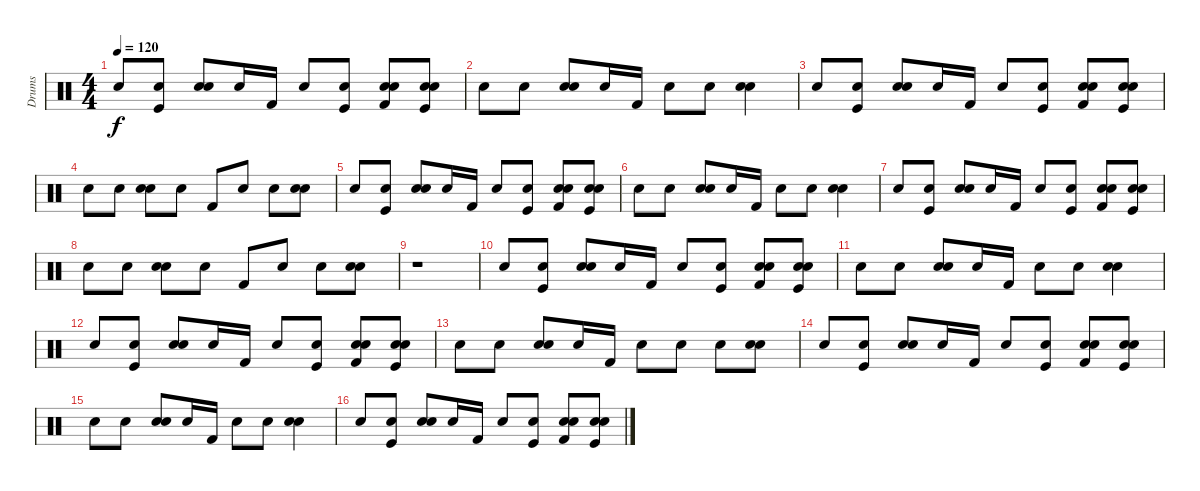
\track ("Drums" "Drums") {instrument percussion}
\staff {score}
\articulation defaults
\ts (4 4)
\tempo 120
\clef neutral
\ks c "Snare (hit) 2".8{dy f}
("Snare (hit) 2" "Kick (hit)").8 ("Electric Snare (hit)" "Snare (hit) 2").8 "Snare (hit) 2".16 "Kick (hit) 2".16 "Snare (hit) 2".8 ("Snare (hit) 2" "Kick (hit)").8 ("Electric Snare (hit)" "Snare (hit) 2" "Kick (hit) 2").8 ("Electric Snare (hit)" "Snare (hit) 2" "Kick (hit)").8 |
"Snare (hit) 2".8 "Snare (hit) 2".8 ("Electric Snare (hit)" "Snare (hit) 2").8 "Snare (hit) 2".16 "Kick (hit) 2".16 "Snare (hit) 2".8 "Snare (hit) 2".8 ("Electric Snare (hit)" "Snare (hit) 2").4 |
"Snare (hit) 2".8 ("Snare (hit) 2" "Kick (hit)").8 ("Electric Snare (hit)" "Snare (hit) 2").8 "Snare (hit) 2".16 "Kick (hit) 2".16 "Snare (hit) 2".8 ("Snare (hit) 2" "Kick (hit)").8 ("Electric Snare (hit)" "Snare (hit) 2" "Kick (hit) 2").8 ("Electric Snare (hit)" "Snare (hit) 2" "Kick (hit)").8 |
"Snare (hit) 2".8 "Snare (hit) 2".8 ("Electric Snare (hit)" "Snare (hit) 2").8 "Snare (hit) 2".8 "Kick (hit) 2".8 "Snare (hit) 2".8 "Snare (hit) 2".8 ("Electric Snare (hit)" "Snare (hit) 2").8 |
"Snare (hit) 2".8 ("Snare (hit) 2" "Kick (hit)").8 ("Electric Snare (hit)" "Snare (hit) 2").8 "Snare (hit) 2".16 "Kick (hit) 2".16 "Snare (hit) 2".8 ("Snare (hit) 2" "Kick (hit)").8 ("Electric Snare (hit)" "Snare (hit) 2" "Kick (hit) 2").8 ("Electric Snare (hit)" "Snare (hit) 2" "Kick (hit)").8 |
"Snare (hit) 2".8 "Snare (hit) 2".8 ("Electric Snare (hit)" "Snare (hit) 2").8 "Snare (hit) 2".16 "Kick (hit) 2".16 "Snare (hit) 2".8 "Snare (hit) 2".8 ("Electric Snare (hit)" "Snare (hit) 2").4 |
"Snare (hit) 2".8 ("Snare (hit) 2" "Kick (hit)").8 ("Electric Snare (hit)" "Snare (hit) 2").8 "Snare (hit) 2".16 "Kick (hit) 2".16 "Snare (hit) 2".8 ("Snare (hit) 2" "Kick (hit)").8 ("Electric Snare (hit)" "Snare (hit) 2" "Kick (hit) 2").8 ("Electric Snare (hit)" "Snare (hit) 2" "Kick (hit)").8 |
"Snare (hit) 2".8 "Snare (hit) 2".8 ("Electric Snare (hit)" "Snare (hit) 2").8 "Snare (hit) 2".8 "Kick (hit) 2".8 "Snare (hit) 2".8 "Snare (hit) 2".8 ("Electric Snare (hit)" "Snare (hit) 2").8 |
r.1 |
"Snare (hit) 2".8 ("Snare (hit) 2" "Kick (hit)").8 ("Electric Snare (hit)" "Snare (hit) 2").8 "Snare (hit) 2".16 "Kick (hit) 2".16 "Snare (hit) 2".8 ("Snare (hit) 2" "Kick (hit)").8 ("Electric Snare (hit)" "Snare (hit) 2" "Kick (hit) 2").8 ("Electric Snare (hit)" "Snare (hit) 2" "Kick (hit)").8 |
"Snare (hit) 2".8 "Snare (hit) 2".8 ("Electric Snare (hit)" "Snare (hit) 2").8 "Snare (hit) 2".16 "Kick (hit) 2".16 "Snare (hit) 2".8 "Snare (hit) 2".8 ("Electric Snare (hit)" "Snare (hit) 2").4 |
"Snare (hit) 2".8 ("Snare (hit) 2" "Kick (hit)").8 ("Electric Snare (hit)" "Snare (hit) 2").8 "Snare (hit) 2".16 "Kick (hit) 2".16 "Snare (hit) 2".8 ("Snare (hit) 2" "Kick (hit)").8 ("Electric Snare (hit)" "Snare (hit) 2" "Kick (hit) 2").8 ("Electric Snare (hit)" "Snare (hit) 2" "Kick (hit)").8 |
"Snare (hit) 2".8 "Snare (hit) 2".8 ("Electric Snare (hit)" "Snare (hit) 2").8 "Snare (hit) 2".16 "Kick (hit) 2".16 "Snare (hit) 2".8 "Snare (hit) 2".8 "Snare (hit) 2".8 ("Electric Snare (hit)" "Snare (hit) 2").8 |
"Snare (hit) 2".8 ("Snare (hit) 2" "Kick (hit)").8 ("Electric Snare (hit)" "Snare (hit) 2").8 "Snare (hit) 2".16 "Kick (hit) 2".16 "Snare (hit) 2".8 ("Snare (hit) 2" "Kick (hit)").8 ("Electric Snare (hit)" "Snare (hit) 2" "Kick (hit) 2").8 ("Electric Snare (hit)" "Snare (hit) 2" "Kick (hit)").8 |
"Snare (hit) 2".8 "Snare (hit) 2".8 ("Electric Snare (hit)" "Snare (hit) 2").8 "Snare (hit) 2".16 "Kick (hit) 2".16 "Snare (hit) 2".8 "Snare (hit) 2".8 ("Electric Snare (hit)" "Snare (hit) 2").4 |
"Snare (hit) 2".8 ("Snare (hit) 2" "Kick (hit)").8 ("Electric Snare (hit)" "Snare (hit) 2").8 "Snare (hit) 2".16 "Kick (hit) 2".16 "Snare (hit) 2".8 ("Snare (hit) 2" "Kick (hit)").8 ("Electric Snare (hit)" "Snare (hit) 2" "Kick (hit) 2").8 ("Electric Snare (hit)" "Snare (hit) 2" "Kick (hit)").8
